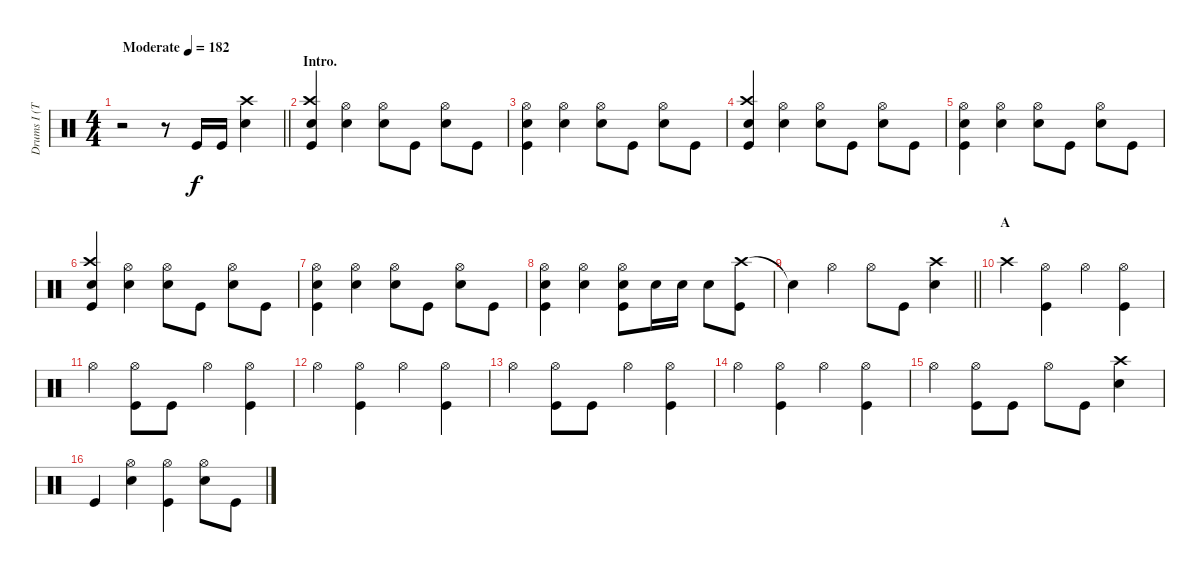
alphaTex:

\track ("Drums I (Tainaka Ritsu)" "Drums I (T") {instrument percussion}
\staff {score}
\articulation defaults
\ts (4 4)
\tempo (182 "Moderate")
\clef neutral
\barLineRight lightlight
\ks c
r.2{dy f} r.8 "Kick (hit)".16 "Kick (hit)".16 ("Crash high (hit)" "Snare (hit) 2").4 |
\section ("" "Intro.")
("Crash high (hit)" "Snare (hit) 2" "Kick (hit)").4 ("Hi-Hat (open)" "Snare (hit) 2").4 ("Hi-Hat (open)" "Snare (hit) 2").8 "Kick (hit)".8 ("Hi-Hat (open)" "Snare (hit) 2").8 "Kick (hit)".8 |
("Hi-Hat (open)" "Snare (hit) 2" "Kick (hit)").4 ("Hi-Hat (open)" "Snare (hit) 2").4 ("Hi-Hat (open)" "Snare (hit) 2").8 "Kick (hit)".8 ("Hi-Hat (open)" "Snare (hit) 2").8 "Kick (hit)".8 |
("Crash high (hit)" "Snare (hit) 2" "Kick (hit)").4 ("Hi-Hat (open)" "Snare (hit) 2").4 ("Hi-Hat (open)" "Snare (hit) 2").8 "Kick (hit)".8 ("Hi-Hat (open)" "Snare (hit) 2").8 "Kick (hit)".8 |
("Hi-Hat (open)" "Snare (hit) 2" "Kick (hit)").4 ("Hi-Hat (open)" "Snare (hit) 2").4 ("Hi-Hat (open)" "Snare (hit) 2").8 "Kick (hit)".8 ("Hi-Hat (open)" "Snare (hit) 2").8 "Kick (hit)".8 |
("Crash high (hit)" "Snare (hit) 2" "Kick (hit)").4 ("Hi-Hat (open)" "Snare (hit) 2").4 ("Hi-Hat (open)" "Snare (hit) 2").8 "Kick (hit)".8 ("Hi-Hat (open)" "Snare (hit) 2").8 "Kick (hit)".8 |
("Hi-Hat (open)" "Snare (hit) 2" "Kick (hit)").4 ("Hi-Hat (open)" "Snare (hit) 2").4 ("Hi-Hat (open)" "Snare (hit) 2").8 "Kick (hit)".8 ("Hi-Hat (open)" "Snare (hit) 2").8 "Kick (hit)".8 |
("Hi-Hat (open)" "Snare (hit) 2" "Kick (hit)").4 ("Hi-Hat (open)" "Snare (hit) 2").4 ("Hi-Hat (open)" "Snare (hit) 2" "Kick (hit)").8 "Snare (hit) 2".16 "Snare (hit) 2".16 "Snare (hit) 2".8 ("Crash high (hit)" "Kick (hit)").8 |
\barLineRight lightlight "Snare (hit)"{t}.4 "Hi-Hat (open)".4 "Hi-Hat (open)".8 "Kick (hit)".8
("Crash high (hit)" "Snare (hit) 2").4 |
\section ("" "A")
"Crash high (hit)".4 ("Hi-Hat (open)" "Kick (hit)").4 "Hi-Hat (open)".4 ("Hi-Hat (open)" "Kick (hit)").4 |
"Hi-Hat (open)".4 ("Hi-Hat (open)" "Kick (hit)").8 "Kick (hit)".8 "Hi-Hat (open)".4 ("Hi-Hat (open)" "Kick (hit)").4 |
"Hi-Hat (open)".4 ("Hi-Hat (open)" "Kick (hit)").4 "Hi-Hat (open)".4 ("Hi-Hat (open)" "Kick (hit)").4 |
"Hi-Hat (open)".4 ("Hi-Hat (open)" "Kick (hit)").8 "Kick (hit)".8 "Hi-Hat (open)".4 ("Hi-Hat (open)" "Kick (hit)").4 |
"Hi-Hat (open)".4 ("Hi-Hat (open)" "Kick (hit)").4 "Hi-Hat (open)".4 ("Hi-Hat (open)" "Kick (hit)").4 |
"Hi-Hat (open)".4 ("Hi-Hat (open)" "Kick (hit)").8 "Kick (hit)".8 "Hi-Hat (open)".8 "Kick (hit)".8 ("Crash high (hit)" "Snare (hit) 2").4 |
"Kick (hit)".4 ("Hi-Hat (open)" "Snare (hit) 2").4 ("Hi-Hat (open)" "Kick (hit)").4 ("Hi-Hat (open)" "Snare (hit) 2").8 "Kick (hit)".8
